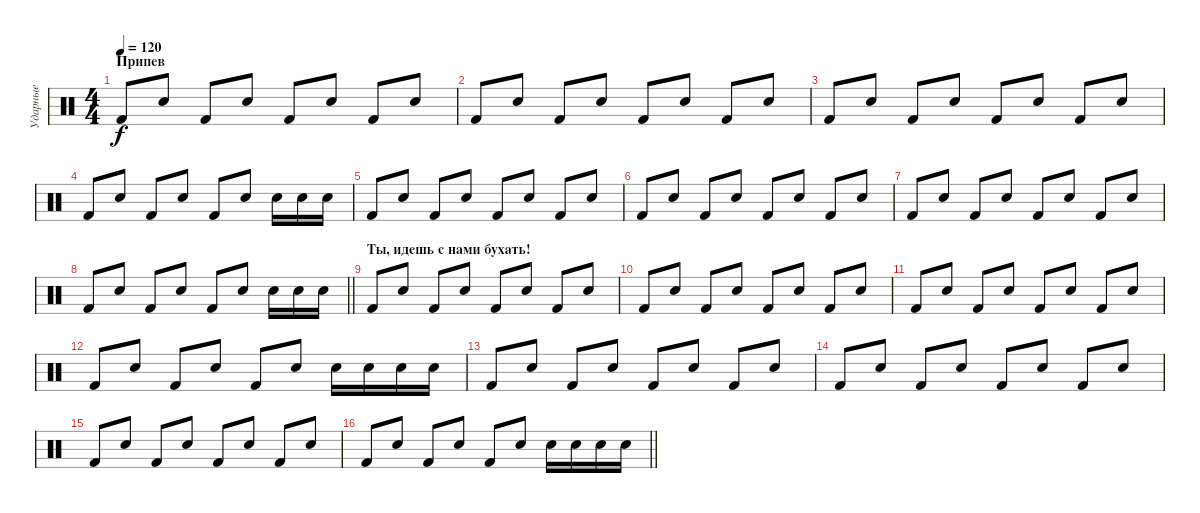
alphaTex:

\track ("Ударные" "Ударные") {instrument percussion}
\staff {score}
\articulation defaults
\ts (4 4)
\section ("" "Припев")
\tempo 120
\clef neutral
\ks c "Kick (hit) 2".8{dy f} "Electric Snare (hit)".8 "Kick (hit) 2".8 "Electric Snare (hit)".8 "Kick (hit) 2".8 "Electric Snare (hit)".8 "Kick (hit) 2".8 "Electric Snare (hit)".8
|
"Kick (hit) 2".8 "Electric Snare (hit)".8 "Kick (hit) 2".8 "Electric Snare (hit)".8 "Kick (hit) 2".8 "Electric Snare (hit)".8 "Kick (hit) 2".8 "Electric Snare (hit)".8 |
"Kick (hit) 2".8 "Electric Snare (hit)".8 "Kick (hit) 2".8 "Electric Snare (hit)".8 "Kick (hit) 2".8 "Electric Snare (hit)".8 "Kick (hit) 2".8 "Electric Snare (hit)".8 |
"Kick (hit) 2".8 "Electric Snare (hit)".8 "Kick (hit) 2".8 "Electric Snare (hit)".8 "Kick (hit) 2".8 "Electric Snare (hit)".8 "Electric Snare (hit)".16 "Electric Snare (hit)".16 "Electric Snare (hit)".16 |
"Kick (hit) 2".8 "Electric Snare (hit)".8 "Kick (hit) 2".8 "Electric Snare (hit)".8 "Kick (hit) 2".8 "Electric Snare (hit)".8 "Kick (hit) 2".8 "Electric Snare (hit)".8 |
"Kick (hit) 2".8 "Electric Snare (hit)".8 "Kick (hit) 2".8 "Electric Snare (hit)".8 "Kick (hit) 2".8 "Electric Snare (hit)".8 "Kick (hit) 2".8 "Electric Snare (hit)".8 |
"Kick (hit) 2".8 "Electric Snare (hit)".8 "Kick (hit) 2".8 "Electric Snare (hit)".8 "Kick (hit) 2".8 "Electric Snare (hit)".8 "Kick (hit) 2".8 "Electric Snare (hit)".8 |
\barLineRight lightlight "Kick (hit) 2".8 "Electric Snare (hit)".8 "Kick (hit) 2".8 "Electric Snare (hit)".8 "Kick (hit) 2".8 "Electric Snare (hit)".8 "Electric Snare (hit)".16 "Electric Snare (hit)".16 "Electric Snare (hit)".16
|
\section ("" "Ты, идешь с нами бухать!")
"Kick (hit) 2".8 "Electric Snare (hit)".8 "Kick (hit) 2".8 "Electric Snare (hit)".8 "Kick (hit) 2".8 "Electric Snare (hit)".8 "Kick (hit) 2".8 "Electric Snare (hit)".8 |
"Kick (hit) 2".8 "Electric Snare (hit)".8 "Kick (hit) 2".8 "Electric Snare (hit)".8 "Kick (hit) 2".8 "Electric Snare (hit)".8 "Kick (hit) 2".8 "Electric Snare (hit)".8 |
"Kick (hit) 2".8 "Electric Snare (hit)".8 "Kick (hit) 2".8 "Electric Snare (hit)".8 "Kick (hit) 2".8 "Electric Snare (hit)".8 "Kick (hit) 2".8 "Electric Snare (hit)".8 |
"Kick (hit) 2".8 "Electric Snare (hit)".8 "Kick (hit) 2".8 "Electric Snare (hit)".8 "Kick (hit) 2".8 "Electric Snare (hit)".8 "Electric Snare (hit)".16 "Electric Snare (hit)".16 "Electric Snare (hit)".16 "Electric Snare (hit)".16 |
"Kick (hit) 2".8 "Electric Snare (hit)".8 "Kick (hit) 2".8 "Electric Snare (hit)".8 "Kick (hit) 2".8 "Electric Snare (hit)".8 "Kick (hit) 2".8 "Electric Snare (hit)".8 |
"Kick (hit) 2".8 "Electric Snare (hit)".8 "Kick (hit) 2".8 "Electric Snare (hit)".8 "Kick (hit) 2".8 "Electric Snare (hit)".8 "Kick (hit) 2".8 "Electric Snare (hit)".8 |
"Kick (hit) 2".8 "Electric Snare (hit)".8 "Kick (hit) 2".8 "Electric Snare (hit)".8 "Kick (hit) 2".8 "Electric Snare (hit)".8 "Kick (hit) 2".8 "Electric Snare (hit)".8 |
\barLineRight lightlight "Kick (hit) 2".8 "Electric Snare (hit)".8 "Kick (hit) 2".8 "Electric Snare (hit)".8 "Kick (hit) 2".8 "Electric Snare (hit)".8 "Electric Snare (hit)".16 "Electric Snare (hit)".16 "Electric Snare (hit)".16 "Electric Snare (hit)".16
